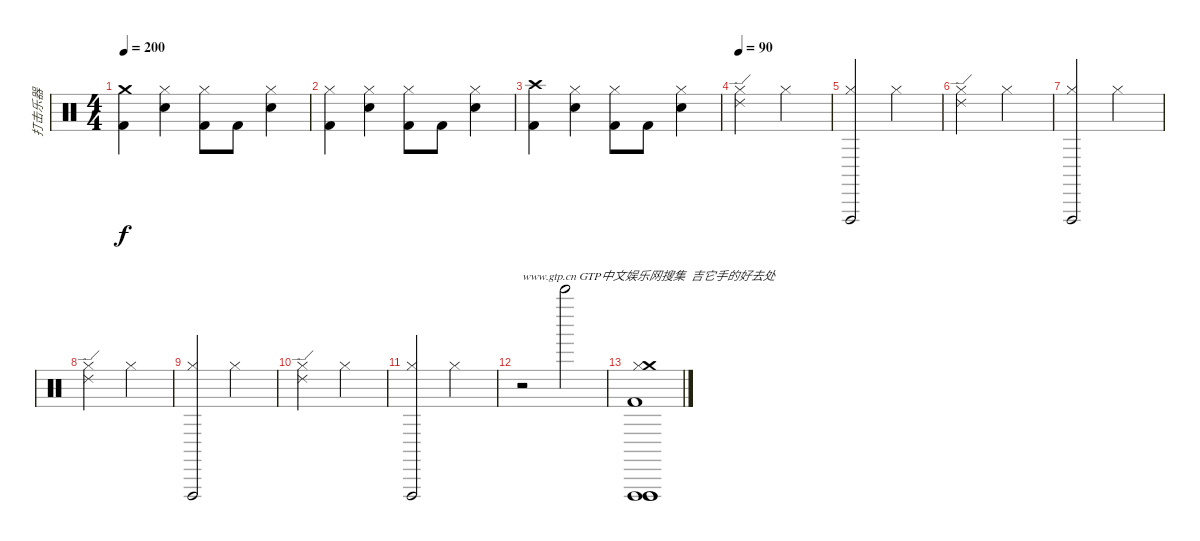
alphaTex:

\track ("打击乐器" "打击乐器") {instrument percussion}
\staff {score}
\articulation defaults
\ts (4 4)
\tempo 200
\clef neutral
\ks c
("Crash medium (hit)" "Kick (hit) 2").4{dy f} ("Hi-Hat (closed)" "Snare (hit) 2").4 ("Hi-Hat (closed)" "Kick (hit) 2").8 "Kick (hit) 2".8 ("Hi-Hat (closed)" "Snare (hit) 2").4 |
("Hi-Hat (closed)" "Kick (hit) 2").4 ("Hi-Hat (closed)" "Snare (hit) 2").4 ("Hi-Hat (closed)" "Kick (hit) 2").8 "Kick (hit) 2".8 ("Hi-Hat (closed)" "Snare (hit) 2").4 |
("Crash high (hit)" "Kick (hit) 2").4 ("Hi-Hat (closed)" "Snare (hit) 2").4 ("Hi-Hat (closed)" "Kick (hit) 2").8 "Kick (hit) 2".8 ("Hi-Hat (closed)" "Snare (hit) 2").4 |
\tempo 90
("Ride (edge) 2" "Hi-Hat (closed)").2 "Hi-Hat (closed)".2 |
("Vibraslap (hit)" "Hi-Hat (closed)").2 "Hi-Hat (closed)".2 |
("Ride (edge) 2" "Hi-Hat (closed)").2 "Hi-Hat (closed)".2 |
("Vibraslap (hit)" "Hi-Hat (closed)").2 "Hi-Hat (closed)".2 |
("Ride (edge) 2" "Hi-Hat (closed)").2 "Hi-Hat (closed)".2 |
("Vibraslap (hit)" "Hi-Hat (closed)").2 "Hi-Hat (closed)".2 |
("Ride (edge) 2" "Hi-Hat (closed)").2 "Hi-Hat (closed)".2 |
("Vibraslap (hit)" "Hi-Hat (closed)").2 "Hi-Hat (closed)".2 |
r.2{txt "www.gtp.cn GTP中文娱乐网搜集  吉它手的好去处"} "Bell Tree (hit)".2 |
("Kick (hit) 2" "Vibraslap (hit)" "Vibraslap (hit)" "Hi-Hat (closed)" "Vibraslap (hit)" "Crash medium (hit)").1
